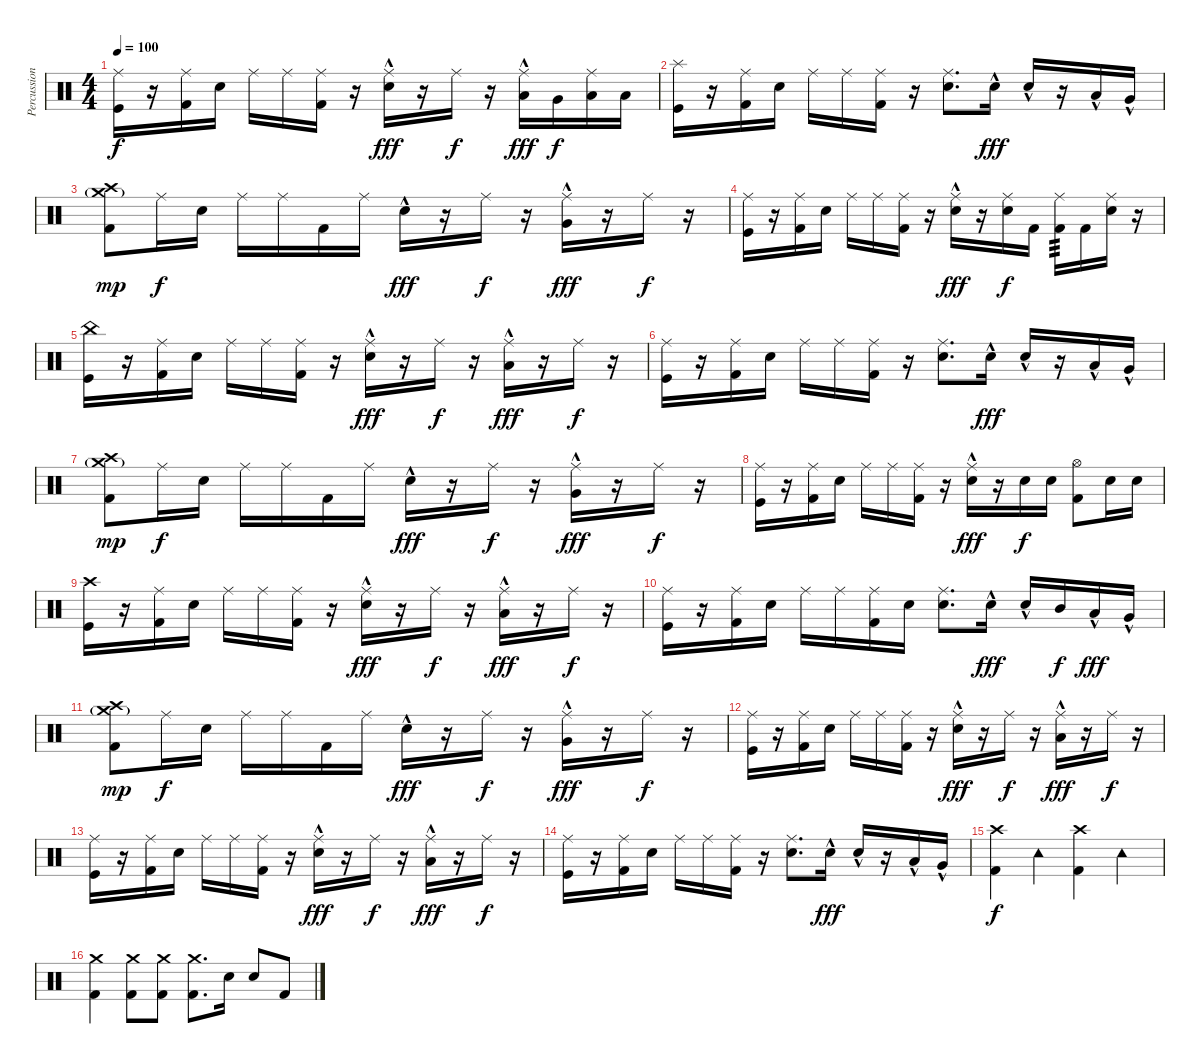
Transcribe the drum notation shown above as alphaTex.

\track ("Percussion" "Percussion") {instrument percussion}
\staff {score}
\articulation defaults
\ts (4 4)
\tempo 100
\clef neutral
\ks c
("Ride (middle)" "Kick (hit)").16{dy f} r.16 ("Ride (middle)" "Kick (hit) 2").16 "Electric Snare (hit)".16 "Ride (middle)".16 "Ride (middle)".16 ("Ride (middle)" "Kick (hit) 2").16 r.16 ("Ride (middle)" "Electric Snare (hit)"{hac}).16{dy fff} r.16 "Ride (middle)".16{dy f} r.16 ("Ride (middle)" "Low Tom (hit)"{hac}).16{dy fff} "Very Low Tom (hit)".16{dy f} ("Ride (middle)" "Low Floor Tom (hit)").16 "Low Floor Tom (hit)".16 |
("Splash (hit)" "Kick (hit)").16 r.16 ("Ride (middle)" "Kick (hit) 2").16 "Electric Snare (hit)".16 "Ride (middle)".16 "Ride (middle)".16 ("Ride (middle)" "Kick (hit) 2").16 r.16 ("Ride (middle)" "Electric Snare (hit)").8{d} "Electric Snare (hit)"{hac}.16{dy fff} "Electric Snare (hit)"{hac}.16 r.16 "Low Tom (hit)"{hac}.16 "Very Low Tom (hit)"{hac}.16 |
("Crash high (hit)" "Crash medium (hit)"{g} "Kick (hit) 2").8{dy mp} "Ride (middle)".16{dy f} "Electric Snare (hit)".16 "Ride (middle)".16 "Ride (middle)".16 "Kick (hit) 2".16 "Ride (middle)".16 "Electric Snare (hit)"{hac}.16{dy fff} r.16 "Ride (middle)".16{dy f} r.16 ("Ride (middle)" "Very Low Tom (hit)"{hac}).16{dy fff} r.16 "Ride (middle)".16{dy f} r.16 |
("Ride (middle)" "Kick (hit)").16 r.16 ("Ride (middle)" "Kick (hit) 2").16 "Electric Snare (hit)".16 "Ride (middle)".16 "Ride (middle)".16 ("Ride (middle)" "Kick (hit) 2").16 r.16 ("Ride (middle)" "Electric Snare (hit)"{hac}).16{dy fff} r.16 ("Ride (middle)" "Electric Snare (hit)").16{dy f} "Kick (hit) 2".16 ("Ride (middle)" "Kick (hit) 2").16{tp 3} "Kick (hit) 2".16 ("Ride (middle)" "Electric Snare (hit)").16 r.16 |
("China (hit)" "Kick (hit)").16 r.16 ("Ride (middle)" "Kick (hit) 2").16 "Electric Snare (hit)".16 "Ride (middle)".16 "Ride (middle)".16 ("Ride (middle)" "Kick (hit) 2").16 r.16 ("Ride (middle)" "Electric Snare (hit)"{hac}).16{dy fff} r.16 "Ride (middle)".16{dy f} r.16 ("Ride (middle)" "Low Tom (hit)"{hac}).16{dy fff} r.16 "Ride (middle)".16{dy f} r.16 |
("Ride (middle)" "Kick (hit)").16 r.16 ("Ride (middle)" "Kick (hit) 2").16 "Electric Snare (hit)".16 "Ride (middle)".16 "Ride (middle)".16 ("Ride (middle)" "Kick (hit) 2").16 r.16 ("Ride (middle)" "Electric Snare (hit)").8{d} "Electric Snare (hit)"{hac}.16{dy fff} "Electric Snare (hit)"{hac}.16 r.16 "Low Tom (hit)"{hac}.16 "Very Low Tom (hit)"{hac}.16 |
("Crash high (hit)" "Crash medium (hit)"{g} "Kick (hit) 2").8{dy mp} "Ride (middle)".16{dy f} "Electric Snare (hit)".16 "Ride (middle)".16 "Ride (middle)".16 "Kick (hit) 2".16 "Ride (middle)".16 "Electric Snare (hit)"{hac}.16{dy fff} r.16 "Ride (middle)".16{dy f} r.16 ("Ride (middle)" "Very Low Tom (hit)"{hac}).16{dy fff} r.16 "Ride (middle)".16{dy f} r.16 |
("Ride (middle)" "Kick (hit)").16 r.16 ("Ride (middle)" "Kick (hit) 2").16 "Electric Snare (hit)".16 "Ride (middle)".16 "Ride (middle)".16 ("Ride (middle)" "Kick (hit) 2").16 r.16 ("Ride (middle)" "Electric Snare (hit)"{hac}).16{dy fff} r.16 "Electric Snare (hit)".16{dy f} "Electric Snare (hit)".16 ("Hi-Hat (open)" "Kick (hit) 2").8 "Electric Snare (hit)".16 "Electric Snare (hit)".16 |
("Crash high (hit)" "Kick (hit)").16 r.16 ("Ride (middle)" "Kick (hit) 2").16 "Electric Snare (hit)".16 "Ride (middle)".16 "Ride (middle)".16 ("Ride (middle)" "Kick (hit) 2").16 r.16 ("Ride (middle)" "Electric Snare (hit)"{hac}).16{dy fff} r.16 "Ride (middle)".16{dy f} r.16 ("Ride (middle)" "Low Tom (hit)"{hac}).16{dy fff} r.16 "Ride (middle)".16{dy f} r.16 |
("Ride (middle)" "Kick (hit)").16 r.16 ("Ride (middle)" "Kick (hit) 2").16 "Electric Snare (hit)".16 "Ride (middle)".16 "Ride (middle)".16 ("Ride (middle)" "Kick (hit) 2").16 "Electric Snare (hit)".16 ("Ride (middle)" "Electric Snare (hit)").8{d} "Electric Snare (hit)"{hac}.16{dy fff} "Electric Snare (hit)"{hac}.16 "Mid Tom (hit)".16{dy f} "Low Tom (hit)"{hac}.16{dy fff} "Very Low Tom (hit)"{hac}.16 |
("Crash high (hit)" "Crash medium (hit)"{g} "Kick (hit) 2").8{dy mp} "Ride (middle)".16{dy f} "Electric Snare (hit)".16 "Ride (middle)".16 "Ride (middle)".16 "Kick (hit) 2".16 "Ride (middle)".16 "Electric Snare (hit)"{hac}.16{dy fff} r.16 "Ride (middle)".16{dy f} r.16 ("Ride (middle)" "Very Low Tom (hit)"{hac}).16{dy fff} r.16 "Ride (middle)".16{dy f} r.16 |
("Ride (middle)" "Kick (hit)").16 r.16 ("Ride (middle)" "Kick (hit) 2").16 "Electric Snare (hit)".16 "Ride (middle)".16 "Ride (middle)".16 ("Ride (middle)" "Kick (hit) 2").16 r.16 ("Ride (middle)" "Electric Snare (hit)"{hac}).16{dy fff} r.16 "Ride (middle)".16{dy f} r.16 ("Ride (middle)" "Low Floor Tom (hit)"{hac}).16{dy fff} r.16 "Ride (middle)".16{dy f} r.16 |
("Ride (middle)" "Kick (hit)").16 r.16 ("Ride (middle)" "Kick (hit) 2").16 "Electric Snare (hit)".16 "Ride (middle)".16 "Ride (middle)".16 ("Ride (middle)" "Kick (hit) 2").16 r.16 ("Ride (middle)" "Electric Snare (hit)"{hac}).16{dy fff} r.16 "Ride (middle)".16{dy f} r.16 ("Ride (middle)" "Low Tom (hit)"{hac}).16{dy fff} r.16 "Ride (middle)".16{dy f} r.16 |
("Ride (middle)" "Kick (hit)").16 r.16 ("Ride (middle)" "Kick (hit) 2").16 "Electric Snare (hit)".16 "Ride (middle)".16 "Ride (middle)".16 ("Ride (middle)" "Kick (hit) 2").16 r.16 ("Ride (middle)" "Electric Snare (hit)").8{d} "Electric Snare (hit)"{hac}.16{dy fff} "Electric Snare (hit)"{hac}.16 r.16 "Low Tom (hit)"{hac}.16 "Very Low Tom (hit)"{hac}.16 |
("Crash high (hit)" "Kick (hit) 2").4{dy f} "Tambourine (hit)".4 ("Crash high (hit)" "Kick (hit) 2").4 "Tambourine (hit)".4 |
("Crash medium (hit)" "Kick (hit) 2").4 ("Crash medium (hit)" "Kick (hit) 2").8 ("Crash medium (hit)" "Kick (hit) 2").8 ("Crash medium (hit)" "Kick (hit) 2").8{d} "Electric Snare (hit)".16 "Electric Snare (hit)".8 "Kick (hit) 2".8
